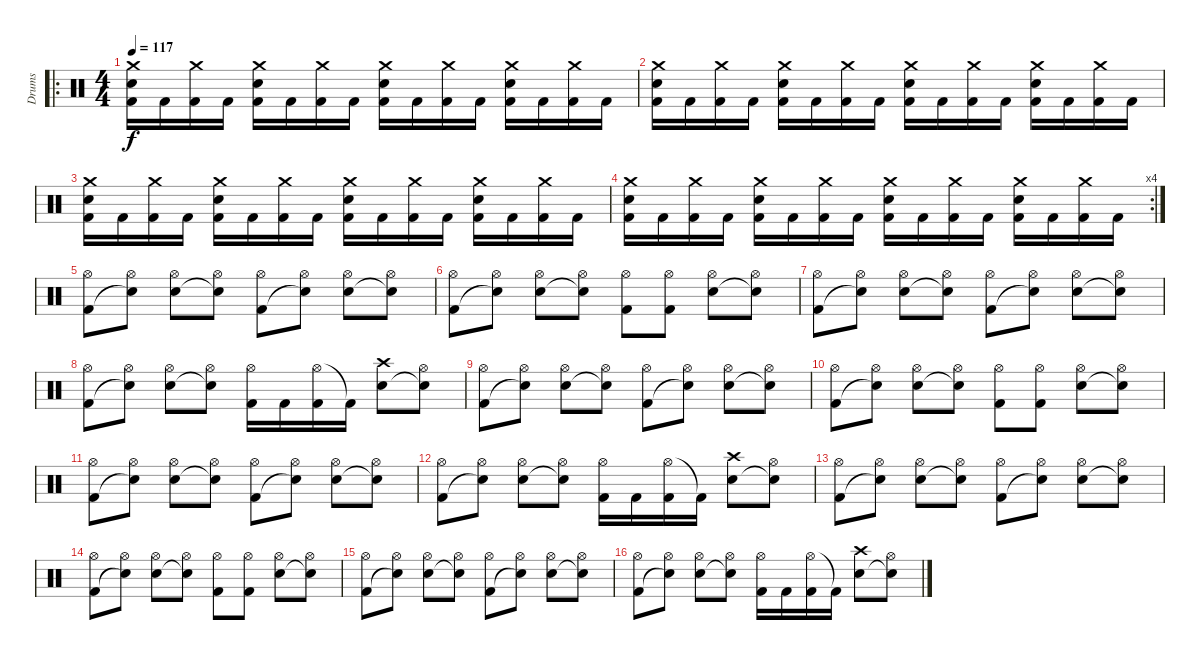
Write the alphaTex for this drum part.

\track ("Drums" "Drums") {instrument percussion}
\staff {score}
\articulation defaults
\ro
\ts (4 4)
\tempo 117
\clef neutral
\ks c
("Crash medium (hit)" "Electric Snare (hit)" "Kick (hit) 2").16{dy f} "Kick (hit) 2".16 ("Crash medium (hit)" "Kick (hit) 2").16 "Kick (hit) 2".16 ("Crash medium (hit)" "Electric Snare (hit)" "Kick (hit) 2").16 "Kick (hit) 2".16 ("Crash medium (hit)" "Kick (hit) 2").16 "Kick (hit) 2".16 ("Crash medium (hit)" "Electric Snare (hit)" "Kick (hit) 2").16 "Kick (hit) 2".16 ("Crash medium (hit)" "Kick (hit) 2").16 "Kick (hit) 2".16 ("Crash medium (hit)" "Electric Snare (hit)" "Kick (hit) 2").16 "Kick (hit) 2".16 ("Crash medium (hit)" "Kick (hit) 2").16 "Kick (hit) 2".16 |
("Crash medium (hit)" "Electric Snare (hit)" "Kick (hit) 2").16 "Kick (hit) 2".16 ("Crash medium (hit)" "Kick (hit) 2").16 "Kick (hit) 2".16 ("Crash medium (hit)" "Electric Snare (hit)" "Kick (hit) 2").16 "Kick (hit) 2".16 ("Crash medium (hit)" "Kick (hit) 2").16 "Kick (hit) 2".16 ("Crash medium (hit)" "Electric Snare (hit)" "Kick (hit) 2").16 "Kick (hit) 2".16 ("Crash medium (hit)" "Kick (hit) 2").16 "Kick (hit) 2".16 ("Crash medium (hit)" "Electric Snare (hit)" "Kick (hit) 2").16 "Kick (hit) 2".16 ("Crash medium (hit)" "Kick (hit) 2").16 "Kick (hit) 2".16 |
("Crash medium (hit)" "Electric Snare (hit)" "Kick (hit) 2").16 "Kick (hit) 2".16 ("Crash medium (hit)" "Kick (hit) 2").16 "Kick (hit) 2".16 ("Crash medium (hit)" "Electric Snare (hit)" "Kick (hit) 2").16 "Kick (hit) 2".16 ("Crash medium (hit)" "Kick (hit) 2").16 "Kick (hit) 2".16 ("Crash medium (hit)" "Electric Snare (hit)" "Kick (hit) 2").16 "Kick (hit) 2".16 ("Crash medium (hit)" "Kick (hit) 2").16 "Kick (hit) 2".16 ("Crash medium (hit)" "Electric Snare (hit)" "Kick (hit) 2").16 "Kick (hit) 2".16 ("Crash medium (hit)" "Kick (hit) 2").16 "Kick (hit) 2".16 |
\rc 4
("Crash medium (hit)" "Electric Snare (hit)" "Kick (hit) 2").16 "Kick (hit) 2".16 ("Crash medium (hit)" "Kick (hit) 2").16 "Kick (hit) 2".16 ("Crash medium (hit)" "Electric Snare (hit)" "Kick (hit) 2").16 "Kick (hit) 2".16 ("Crash medium (hit)" "Kick (hit) 2").16 "Kick (hit) 2".16 ("Crash medium (hit)" "Electric Snare (hit)" "Kick (hit) 2").16 "Kick (hit) 2".16 ("Crash medium (hit)" "Kick (hit) 2").16 "Kick (hit) 2".16 ("Crash medium (hit)" "Electric Snare (hit)" "Kick (hit) 2").16 "Kick (hit) 2".16 ("Crash medium (hit)" "Kick (hit) 2").16 "Kick (hit) 2".16 |
("Hi-Hat (open)" "Kick (hit) 2").8 ("Hi-Hat (open)" "Snare (hit)"{t}).8 ("Hi-Hat (open)" "Electric Snare (hit)").8 ("Hi-Hat (open)" "Snare (hit)"{t}).8 ("Hi-Hat (open)" "Kick (hit) 2").8 ("Hi-Hat (open)" "Snare (hit)"{t}).8 ("Hi-Hat (open)" "Electric Snare (hit)").8 ("Hi-Hat (open)" "Snare (hit)"{t}).8 |
("Hi-Hat (open)" "Kick (hit) 2").8 ("Hi-Hat (open)" "Snare (hit)"{t}).8 ("Hi-Hat (open)" "Electric Snare (hit)").8 ("Hi-Hat (open)" "Snare (hit)"{t}).8 ("Hi-Hat (open)" "Kick (hit) 2").8 ("Hi-Hat (open)" "Kick (hit) 2").8 ("Hi-Hat (open)" "Electric Snare (hit)").8 ("Hi-Hat (open)" "Snare (hit)"{t}).8 |
("Hi-Hat (open)" "Kick (hit) 2").8 ("Hi-Hat (open)" "Snare (hit)"{t}).8 ("Hi-Hat (open)" "Electric Snare (hit)").8 ("Hi-Hat (open)" "Snare (hit)"{t}).8 ("Hi-Hat (open)" "Kick (hit) 2").8 ("Hi-Hat (open)" "Snare (hit)"{t}).8 ("Hi-Hat (open)" "Electric Snare (hit)").8 ("Hi-Hat (open)" "Snare (hit)"{t}).8 |
("Hi-Hat (open)" "Kick (hit) 2").8 ("Hi-Hat (open)" "Snare (hit)"{t}).8 ("Hi-Hat (open)" "Electric Snare (hit)").8 ("Hi-Hat (open)" "Snare (hit)"{t}).8 ("Hi-Hat (open)" "Kick (hit) 2").16 "Kick (hit) 2".16 ("Hi-Hat (open)" "Kick (hit) 2").16 "Kick (hit) 2"{t}.16 ("Crash high (hit)" "Electric Snare (hit)").8 ("Hi-Hat (open)" "Snare (hit)"{t}).8 |
("Hi-Hat (open)" "Kick (hit) 2").8 ("Hi-Hat (open)" "Snare (hit)"{t}).8 ("Hi-Hat (open)" "Electric Snare (hit)").8 ("Hi-Hat (open)" "Snare (hit)"{t}).8 ("Hi-Hat (open)" "Kick (hit) 2").8 ("Hi-Hat (open)" "Snare (hit)"{t}).8 ("Hi-Hat (open)" "Electric Snare (hit)").8 ("Hi-Hat (open)" "Snare (hit)"{t}).8 |
("Hi-Hat (open)" "Kick (hit) 2").8 ("Hi-Hat (open)" "Snare (hit)"{t}).8 ("Hi-Hat (open)" "Electric Snare (hit)").8 ("Hi-Hat (open)" "Snare (hit)"{t}).8 ("Hi-Hat (open)" "Kick (hit) 2").8 ("Hi-Hat (open)" "Kick (hit) 2").8 ("Hi-Hat (open)" "Electric Snare (hit)").8 ("Hi-Hat (open)" "Snare (hit)"{t}).8 |
("Hi-Hat (open)" "Kick (hit) 2").8 ("Hi-Hat (open)" "Snare (hit)"{t}).8 ("Hi-Hat (open)" "Electric Snare (hit)").8 ("Hi-Hat (open)" "Snare (hit)"{t}).8 ("Hi-Hat (open)" "Kick (hit) 2").8 ("Hi-Hat (open)" "Snare (hit)"{t}).8 ("Hi-Hat (open)" "Electric Snare (hit)").8 ("Hi-Hat (open)" "Snare (hit)"{t}).8 |
("Hi-Hat (open)" "Kick (hit) 2").8 ("Hi-Hat (open)" "Snare (hit)"{t}).8 ("Hi-Hat (open)" "Electric Snare (hit)").8 ("Hi-Hat (open)" "Snare (hit)"{t}).8 ("Hi-Hat (open)" "Kick (hit) 2").16 "Kick (hit) 2".16 ("Hi-Hat (open)" "Kick (hit) 2").16 "Kick (hit) 2"{t}.16 ("Crash high (hit)" "Electric Snare (hit)").8 ("Hi-Hat (open)" "Snare (hit)"{t}).8 |
("Hi-Hat (open)" "Kick (hit) 2").8 ("Hi-Hat (open)" "Snare (hit)"{t}).8 ("Hi-Hat (open)" "Electric Snare (hit)").8 ("Hi-Hat (open)" "Snare (hit)"{t}).8 ("Hi-Hat (open)" "Kick (hit) 2").8 ("Hi-Hat (open)" "Snare (hit)"{t}).8 ("Hi-Hat (open)" "Electric Snare (hit)").8 ("Hi-Hat (open)" "Snare (hit)"{t}).8 |
("Hi-Hat (open)" "Kick (hit) 2").8 ("Hi-Hat (open)" "Snare (hit)"{t}).8 ("Hi-Hat (open)" "Electric Snare (hit)").8 ("Hi-Hat (open)" "Snare (hit)"{t}).8 ("Hi-Hat (open)" "Kick (hit) 2").8 ("Hi-Hat (open)" "Kick (hit) 2").8 ("Hi-Hat (open)" "Electric Snare (hit)").8 ("Hi-Hat (open)" "Snare (hit)"{t}).8 |
("Hi-Hat (open)" "Kick (hit) 2").8 ("Hi-Hat (open)" "Snare (hit)"{t}).8 ("Hi-Hat (open)" "Electric Snare (hit)").8 ("Hi-Hat (open)" "Snare (hit)"{t}).8 ("Hi-Hat (open)" "Kick (hit) 2").8 ("Hi-Hat (open)" "Snare (hit)"{t}).8 ("Hi-Hat (open)" "Electric Snare (hit)").8 ("Hi-Hat (open)" "Snare (hit)"{t}).8 |
("Hi-Hat (open)" "Kick (hit) 2").8 ("Hi-Hat (open)" "Snare (hit)"{t}).8 ("Hi-Hat (open)" "Electric Snare (hit)").8 ("Hi-Hat (open)" "Snare (hit)"{t}).8 ("Hi-Hat (open)" "Kick (hit) 2").16 "Kick (hit) 2".16 ("Hi-Hat (open)" "Kick (hit) 2").16 "Kick (hit) 2"{t}.16 ("Crash high (hit)" "Electric Snare (hit)").8 ("Hi-Hat (open)" "Snare (hit)"{t}).8
